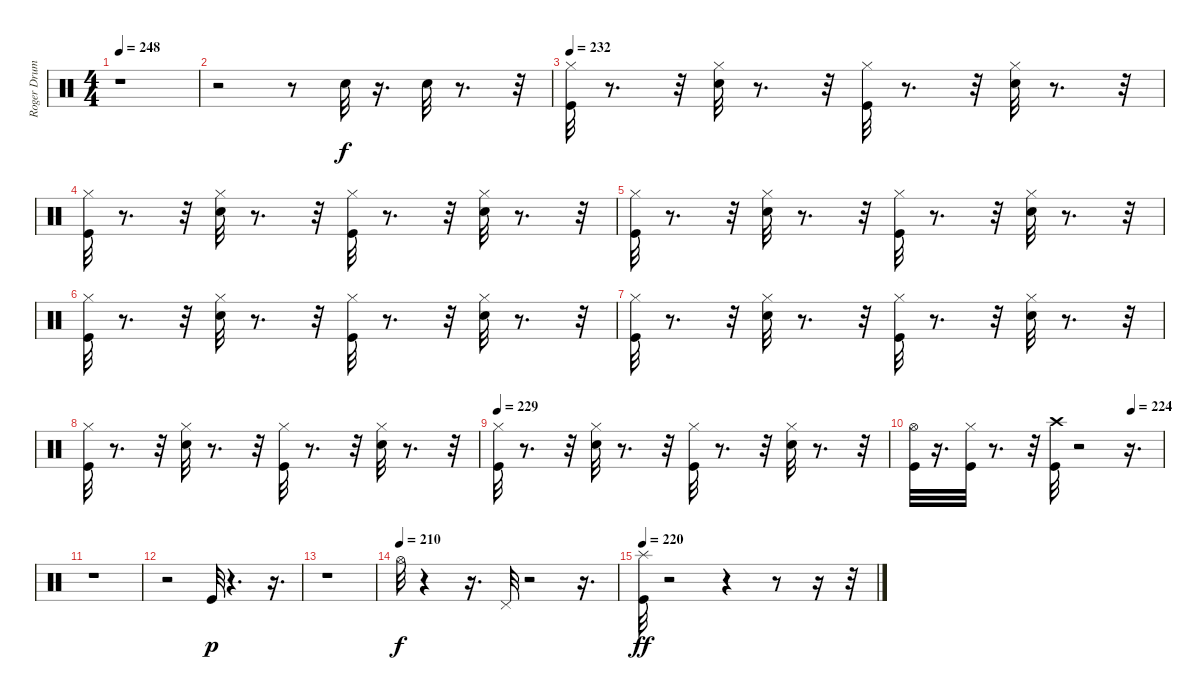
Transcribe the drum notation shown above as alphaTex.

\track ("Roger Drums" "Roger Drum") {instrument percussion}
\staff {score}
\articulation defaults
\ts (4 4)
\tempo 248
\clef neutral
\ks c
r.1{dy f} |
r.2 r.8 "Electric Snare (hit)".32 r.16{d} "Electric Snare (hit)".32 r.8{d} r.32 |
\tempo 232
("Hi-Hat (closed)" "Kick (hit)").32 r.8{d} r.32 ("Hi-Hat (closed)" "Electric Snare (hit)").32 r.8{d} r.32 ("Hi-Hat (closed)" "Kick (hit)").32 r.8{d} r.32 ("Hi-Hat (closed)" "Electric Snare (hit)").32 r.8{d} r.32 |
("Hi-Hat (closed)" "Kick (hit)").32 r.8{d} r.32 ("Hi-Hat (closed)" "Electric Snare (hit)").32 r.8{d} r.32 ("Hi-Hat (closed)" "Kick (hit)").32 r.8{d} r.32 ("Hi-Hat (closed)" "Electric Snare (hit)").32 r.8{d} r.32 |
("Hi-Hat (closed)" "Kick (hit)").32 r.8{d} r.32 ("Hi-Hat (closed)" "Electric Snare (hit)").32 r.8{d} r.32 ("Hi-Hat (closed)" "Kick (hit)").32 r.8{d} r.32 ("Hi-Hat (closed)" "Electric Snare (hit)").32 r.8{d} r.32 |
("Hi-Hat (closed)" "Kick (hit)").32 r.8{d} r.32 ("Hi-Hat (closed)" "Electric Snare (hit)").32 r.8{d} r.32 ("Hi-Hat (closed)" "Kick (hit)").32 r.8{d} r.32 ("Hi-Hat (closed)" "Electric Snare (hit)").32 r.8{d} r.32 |
("Hi-Hat (closed)" "Kick (hit)").32 r.8{d} r.32 ("Hi-Hat (closed)" "Electric Snare (hit)").32 r.8{d} r.32 ("Hi-Hat (closed)" "Kick (hit)").32 r.8{d} r.32 ("Hi-Hat (closed)" "Electric Snare (hit)").32 r.8{d} r.32 |
("Hi-Hat (closed)" "Kick (hit)").32 r.8{d} r.32 ("Hi-Hat (closed)" "Electric Snare (hit)").32 r.8{d} r.32 ("Hi-Hat (closed)" "Kick (hit)").32 r.8{d} r.32 ("Hi-Hat (closed)" "Electric Snare (hit)").32 r.8{d} r.32 |
\tempo 229
("Hi-Hat (closed)" "Kick (hit)").32 r.8{d} r.32 ("Hi-Hat (closed)" "Electric Snare (hit)").32 r.8{d} r.32 ("Hi-Hat (closed)" "Kick (hit)").32 r.8{d} r.32 ("Hi-Hat (closed)" "Electric Snare (hit)").32 r.8{d} r.32 |
\tempo (224 0.875)
("Hi-Hat (open)" "Kick (hit)").32 r.16{d} ("Hi-Hat (closed)" "Kick (hit)").32 r.8{d} r.32 ("Crash high (hit)" "Kick (hit)").32 r.2 r.16{d} |
r.1 |
r.2 "Kick (hit)".32{dy p} r.4{d} r.16{d} |
r.1 |
\tempo (210)
"Hi-Hat (open)".32{dy f} r.4 r.16{d} "Pedal Hi-Hat (hit)".32 r.2 r.16{d} |
\tempo 220
("Splash (hit)" "Kick (hit)").32{dy ff} r.2 r.4 r.8 r.16 r.32
